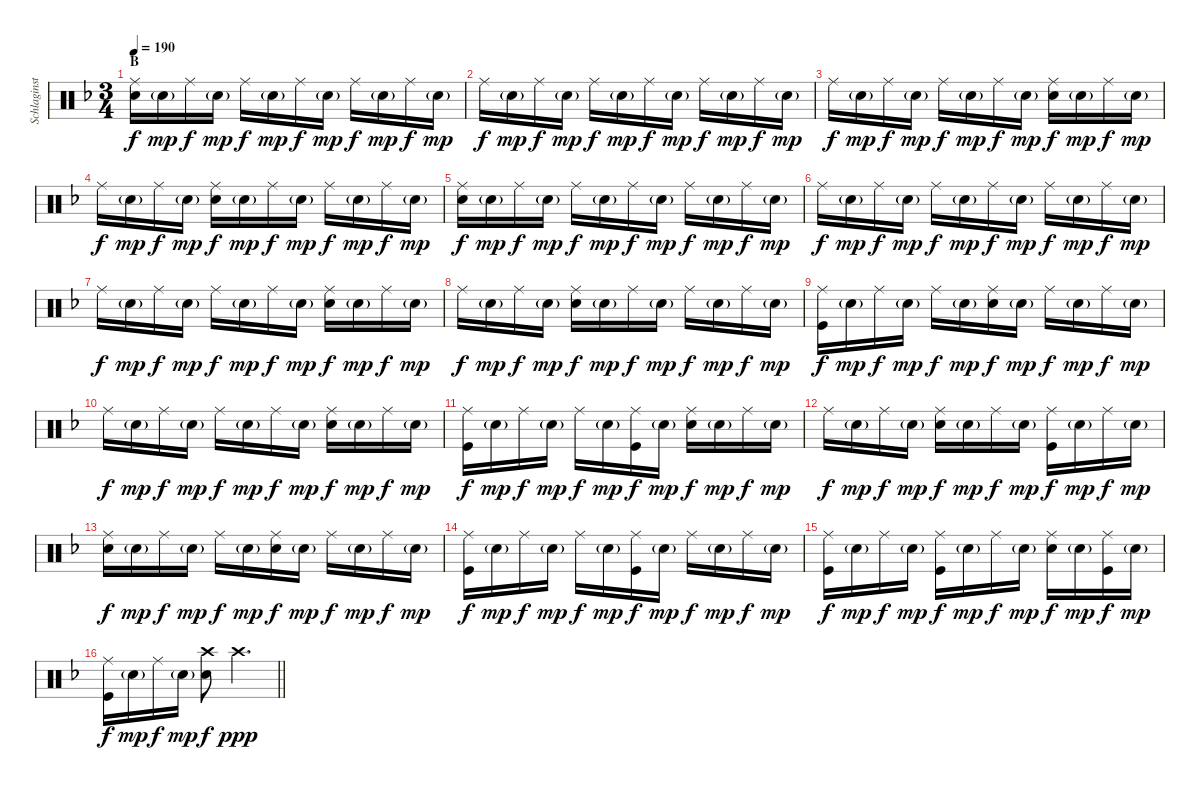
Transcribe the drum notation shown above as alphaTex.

\track ("Schlaginstrumente - Auswahl" "Schlaginst") {instrument percussion}
\staff {score}
\articulation defaults
\ts (3 4)
\section ("" "B")
\tempo 190
\clef neutral
\ks dminor
("Ride (middle)" "Electric Snare (hit)").16{dy f volume 10} "Electric Snare (hit)"{g}.16{dy mp} "Ride (middle)".16{dy f} "Electric Snare (hit)"{g}.16{dy mp} "Ride (middle)".16{dy f} "Electric Snare (hit)"{g}.16{dy mp} "Ride (middle)".16{dy f} "Electric Snare (hit)"{g}.16{dy mp} "Ride (middle)".16{dy f} "Electric Snare (hit)"{g}.16{dy mp} "Ride (middle)".16{dy f} "Electric Snare (hit)"{g}.16{dy mp} |
"Ride (middle)".16{dy f} "Electric Snare (hit)"{g}.16{dy mp} "Ride (middle)".16{dy f} "Electric Snare (hit)"{g}.16{dy mp} "Ride (middle)".16{dy f} "Electric Snare (hit)"{g}.16{dy mp} "Ride (middle)".16{dy f} "Electric Snare (hit)"{g}.16{dy mp} "Ride (middle)".16{dy f} "Electric Snare (hit)"{g}.16{dy mp} "Ride (middle)".16{dy f} "Electric Snare (hit)"{g}.16{dy mp} |
"Ride (middle)".16{dy f} "Electric Snare (hit)"{g}.16{dy mp} "Ride (middle)".16{dy f} "Electric Snare (hit)"{g}.16{dy mp} "Ride (middle)".16{dy f volume 14} "Electric Snare (hit)"{g}.16{dy mp} "Ride (middle)".16{dy f} "Electric Snare (hit)"{g}.16{dy mp} ("Ride (middle)" "Electric Snare (hit)").16{dy f} "Electric Snare (hit)"{g}.16{dy mp} "Ride (middle)".16{dy f} "Electric Snare (hit)"{g}.16{dy mp} |
"Ride (middle)".16{dy f} "Electric Snare (hit)"{g}.16{dy mp} "Ride (middle)".16{dy f} "Electric Snare (hit)"{g}.16{dy mp} ("Ride (middle)" "Electric Snare (hit)").16{dy f} "Electric Snare (hit)"{g}.16{dy mp} "Ride (middle)".16{dy f} "Electric Snare (hit)"{g}.16{dy mp} "Ride (middle)".16{dy f} "Electric Snare (hit)"{g}.16{dy mp} "Ride (middle)".16{dy f} "Electric Snare (hit)"{g}.16{dy mp} |
("Ride (middle)" "Electric Snare (hit)").16{dy f volume 12} "Electric Snare (hit)"{g}.16{dy mp} "Ride (middle)".16{dy f} "Electric Snare (hit)"{g}.16{dy mp} "Ride (middle)".16{dy f} "Electric Snare (hit)"{g}.16{dy mp} "Ride (middle)".16{dy f} "Electric Snare (hit)"{g}.16{dy mp} "Ride (middle)".16{dy f} "Electric Snare (hit)"{g}.16{dy mp} "Ride (middle)".16{dy f} "Electric Snare (hit)"{g}.16{dy mp} |
"Ride (middle)".16{dy f} "Electric Snare (hit)"{g}.16{dy mp} "Ride (middle)".16{dy f} "Electric Snare (hit)"{g}.16{dy mp} "Ride (middle)".16{dy f} "Electric Snare (hit)"{g}.16{dy mp} "Ride (middle)".16{dy f} "Electric Snare (hit)"{g}.16{dy mp} "Ride (middle)".16{dy f} "Electric Snare (hit)"{g}.16{dy mp} "Ride (middle)".16{dy f} "Electric Snare (hit)"{g}.16{dy mp} |
"Ride (middle)".16{dy f} "Electric Snare (hit)"{g}.16{dy mp} "Ride (middle)".16{dy f} "Electric Snare (hit)"{g}.16{dy mp} "Ride (middle)".16{dy f volume 14} "Electric Snare (hit)"{g}.16{dy mp} "Ride (middle)".16{dy f} "Electric Snare (hit)"{g}.16{dy mp} ("Ride (middle)" "Electric Snare (hit)").16{dy f} "Electric Snare (hit)"{g}.16{dy mp} "Ride (middle)".16{dy f} "Electric Snare (hit)"{g}.16{dy mp} |
"Ride (middle)".16{dy f} "Electric Snare (hit)"{g}.16{dy mp} "Ride (middle)".16{dy f} "Electric Snare (hit)"{g}.16{dy mp} ("Ride (middle)" "Electric Snare (hit)").16{dy f} "Electric Snare (hit)"{g}.16{dy mp} "Ride (middle)".16{dy f} "Electric Snare (hit)"{g}.16{dy mp} "Ride (middle)".16{dy f} "Electric Snare (hit)"{g}.16{dy mp} "Ride (middle)".16{dy f} "Electric Snare (hit)"{g}.16{dy mp} |
("Ride (middle)" "Kick (hit)").16{dy f} "Electric Snare (hit)"{g}.16{dy mp} "Ride (middle)".16{dy f} "Electric Snare (hit)"{g}.16{dy mp} "Ride (middle)".16{dy f} "Electric Snare (hit)"{g}.16{dy mp} ("Ride (middle)" "Electric Snare (hit)").16{dy f} "Electric Snare (hit)"{g}.16{dy mp} "Ride (middle)".16{dy f} "Electric Snare (hit)"{g}.16{dy mp} "Ride (middle)".16{dy f} "Electric Snare (hit)"{g}.16{dy mp} |
"Ride (middle)".16{dy f} "Electric Snare (hit)"{g}.16{dy mp} "Ride (middle)".16{dy f} "Electric Snare (hit)"{g}.16{dy mp} "Ride (middle)".16{dy f} "Electric Snare (hit)"{g}.16{dy mp} "Ride (middle)".16{dy f} "Electric Snare (hit)"{g}.16{dy mp} ("Ride (middle)" "Electric Snare (hit)").16{dy f} "Electric Snare (hit)"{g}.16{dy mp} "Ride (middle)".16{dy f} "Electric Snare (hit)"{g}.16{dy mp} |
("Ride (middle)" "Kick (hit)").16{dy f} "Electric Snare (hit)"{g}.16{dy mp} "Ride (middle)".16{dy f} "Electric Snare (hit)"{g}.16{dy mp} "Ride (middle)".16{dy f} "Electric Snare (hit)"{g}.16{dy mp} ("Ride (middle)" "Kick (hit)").16{dy f} "Electric Snare (hit)"{g}.16{dy mp} ("Ride (middle)" "Electric Snare (hit)").16{dy f} "Electric Snare (hit)"{g}.16{dy mp} "Ride (middle)".16{dy f} "Electric Snare (hit)"{g}.16{dy mp} |
"Ride (middle)".16{dy f} "Electric Snare (hit)"{g}.16{dy mp} "Ride (middle)".16{dy f} "Electric Snare (hit)"{g}.16{dy mp} ("Ride (middle)" "Electric Snare (hit)").16{dy f} "Electric Snare (hit)"{g}.16{dy mp} "Ride (middle)".16{dy f} "Electric Snare (hit)"{g}.16{dy mp} ("Ride (middle)" "Kick (hit)").16{dy f} "Electric Snare (hit)"{g}.16{dy mp} "Ride (middle)".16{dy f} "Electric Snare (hit)"{g}.16{dy mp} |
("Ride (middle)" "Electric Snare (hit)").16{dy f} "Electric Snare (hit)"{g}.16{dy mp} "Ride (middle)".16{dy f} "Electric Snare (hit)"{g}.16{dy mp} "Ride (middle)".16{dy f} "Electric Snare (hit)"{g}.16{dy mp} ("Ride (middle)" "Electric Snare (hit)").16{dy f} "Electric Snare (hit)"{g}.16{dy mp} "Ride (middle)".16{dy f} "Electric Snare (hit)"{g}.16{dy mp} "Ride (middle)".16{dy f} "Electric Snare (hit)"{g}.16{dy mp} |
("Ride (middle)" "Kick (hit)").16{dy f} "Electric Snare (hit)"{g}.16{dy mp} "Ride (middle)".16{dy f} "Electric Snare (hit)"{g}.16{dy mp} "Ride (middle)".16{dy f} "Electric Snare (hit)"{g}.16{dy mp} ("Ride (middle)" "Kick (hit)").16{dy f} "Electric Snare (hit)"{g}.16{dy mp} "Ride (middle)".16{dy f} "Electric Snare (hit)"{g}.16{dy mp} "Ride (middle)".16{dy f} "Electric Snare (hit)"{g}.16{dy mp} |
("Ride (middle)" "Kick (hit)").16{dy f} "Electric Snare (hit)"{g}.16{dy mp} "Ride (middle)".16{dy f} "Electric Snare (hit)"{g}.16{dy mp} ("Ride (middle)" "Kick (hit)").16{dy f volume 16} "Electric Snare (hit)"{g}.16{dy mp} "Ride (middle)".16{dy f} "Electric Snare (hit)"{g}.16{dy mp} ("Ride (middle)" "Electric Snare (hit)").16{dy f} "Electric Snare (hit)"{g}.16{dy mp} ("Ride (middle)" "Kick (hit)").16{dy f} "Electric Snare (hit)"{g}.16{dy mp} |
\barLineRight lightlight
("Ride (middle)" "Kick (hit)").16{dy f} "Electric Snare (hit)"{g}.16{dy mp} "Ride (middle)".16{dy f} "Electric Snare (hit)"{g}.16{dy mp} ("Crash high (hit)" "Electric Snare (hit)").8{dy f} "Crash high (hit)".4{d dy ppp volume 14}
